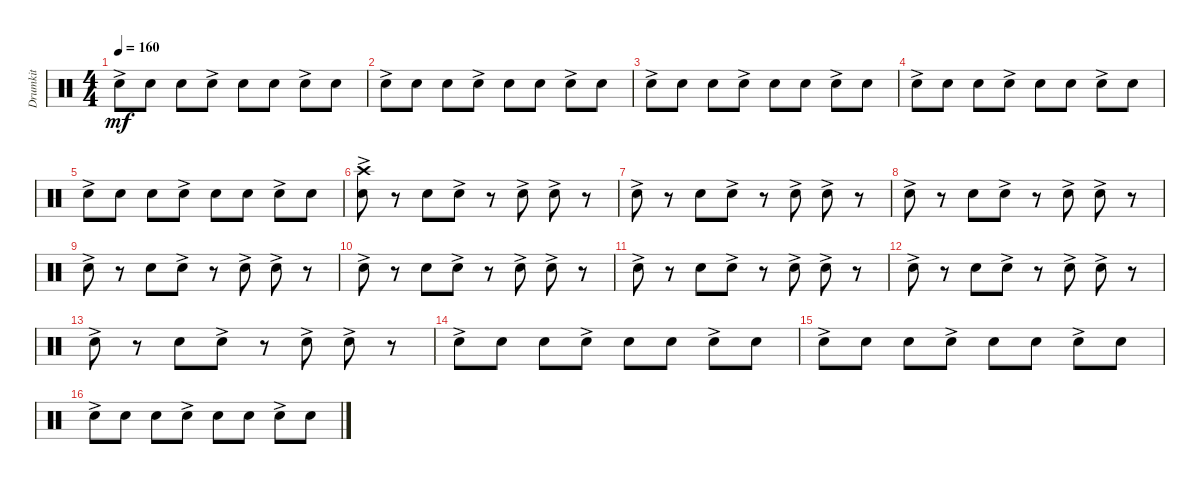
\track ("Drumkit" "Drumkit") {instrument percussion}
\staff {score}
\articulation defaults
\ts (4 4)
\tempo 160
\clef neutral
\ks c "Snare (hit) 2"{ac}.8{dy mf} "Snare (hit) 2".8 "Snare (hit) 2".8 "Snare (hit) 2"{ac}.8 "Snare (hit) 2".8 "Snare (hit) 2".8 "Snare (hit) 2"{ac}.8 "Snare (hit) 2".8
|
"Snare (hit) 2"{ac}.8 "Snare (hit) 2".8 "Snare (hit) 2".8 "Snare (hit) 2"{ac}.8 "Snare (hit) 2".8 "Snare (hit) 2".8 "Snare (hit) 2"{ac}.8 "Snare (hit) 2".8 |
"Snare (hit) 2"{ac}.8 "Snare (hit) 2".8 "Snare (hit) 2".8 "Snare (hit) 2"{ac}.8 "Snare (hit) 2".8 "Snare (hit) 2".8 "Snare (hit) 2"{ac}.8 "Snare (hit) 2".8 |
"Snare (hit) 2"{ac}.8 "Snare (hit) 2".8 "Snare (hit) 2".8 "Snare (hit) 2"{ac}.8 "Snare (hit) 2".8 "Snare (hit) 2".8 "Snare (hit) 2"{ac}.8 "Snare (hit) 2".8 |
"Snare (hit) 2"{ac}.8 "Snare (hit) 2".8 "Snare (hit) 2".8 "Snare (hit) 2"{ac}.8 "Snare (hit) 2".8 "Snare (hit) 2".8 "Snare (hit) 2"{ac}.8 "Snare (hit) 2".8 |
("Snare (hit) 2"{ac} "Crash high (hit)").8 r.8 "Snare (hit) 2".8 "Snare (hit) 2"{ac}.8 r.8 "Snare (hit) 2"{ac}.8 "Snare (hit) 2"{ac}.8 r.8 |
"Snare (hit) 2"{ac}.8 r.8 "Snare (hit) 2".8 "Snare (hit) 2"{ac}.8 r.8 "Snare (hit) 2"{ac}.8 "Snare (hit) 2"{ac}.8 r.8 |
"Snare (hit) 2"{ac}.8 r.8 "Snare (hit) 2".8 "Snare (hit) 2"{ac}.8 r.8 "Snare (hit) 2"{ac}.8 "Snare (hit) 2"{ac}.8 r.8 |
"Snare (hit) 2"{ac}.8 r.8 "Snare (hit) 2".8 "Snare (hit) 2"{ac}.8 r.8 "Snare (hit) 2"{ac}.8 "Snare (hit) 2"{ac}.8 r.8 |
"Snare (hit) 2"{ac}.8 r.8 "Snare (hit) 2".8 "Snare (hit) 2"{ac}.8 r.8 "Snare (hit) 2"{ac}.8 "Snare (hit) 2"{ac}.8 r.8 |
"Snare (hit) 2"{ac}.8 r.8 "Snare (hit) 2".8 "Snare (hit) 2"{ac}.8 r.8 "Snare (hit) 2"{ac}.8 "Snare (hit) 2"{ac}.8 r.8 |
"Snare (hit) 2"{ac}.8 r.8 "Snare (hit) 2".8 "Snare (hit) 2"{ac}.8 r.8 "Snare (hit) 2"{ac}.8 "Snare (hit) 2"{ac}.8 r.8 |
"Snare (hit) 2"{ac}.8 r.8 "Snare (hit) 2".8 "Snare (hit) 2"{ac}.8 r.8 "Snare (hit) 2"{ac}.8 "Snare (hit) 2"{ac}.8 r.8 |
"Snare (hit) 2"{ac}.8 "Snare (hit) 2".8 "Snare (hit) 2".8 "Snare (hit) 2"{ac}.8 "Snare (hit) 2".8 "Snare (hit) 2".8 "Snare (hit) 2"{ac}.8 "Snare (hit) 2".8 |
"Snare (hit) 2"{ac}.8 "Snare (hit) 2".8 "Snare (hit) 2".8 "Snare (hit) 2"{ac}.8 "Snare (hit) 2".8 "Snare (hit) 2".8 "Snare (hit) 2"{ac}.8 "Snare (hit) 2".8 |
"Snare (hit) 2"{ac}.8 "Snare (hit) 2".8 "Snare (hit) 2".8 "Snare (hit) 2"{ac}.8 "Snare (hit) 2".8 "Snare (hit) 2".8 "Snare (hit) 2"{ac}.8 "Snare (hit) 2".8
